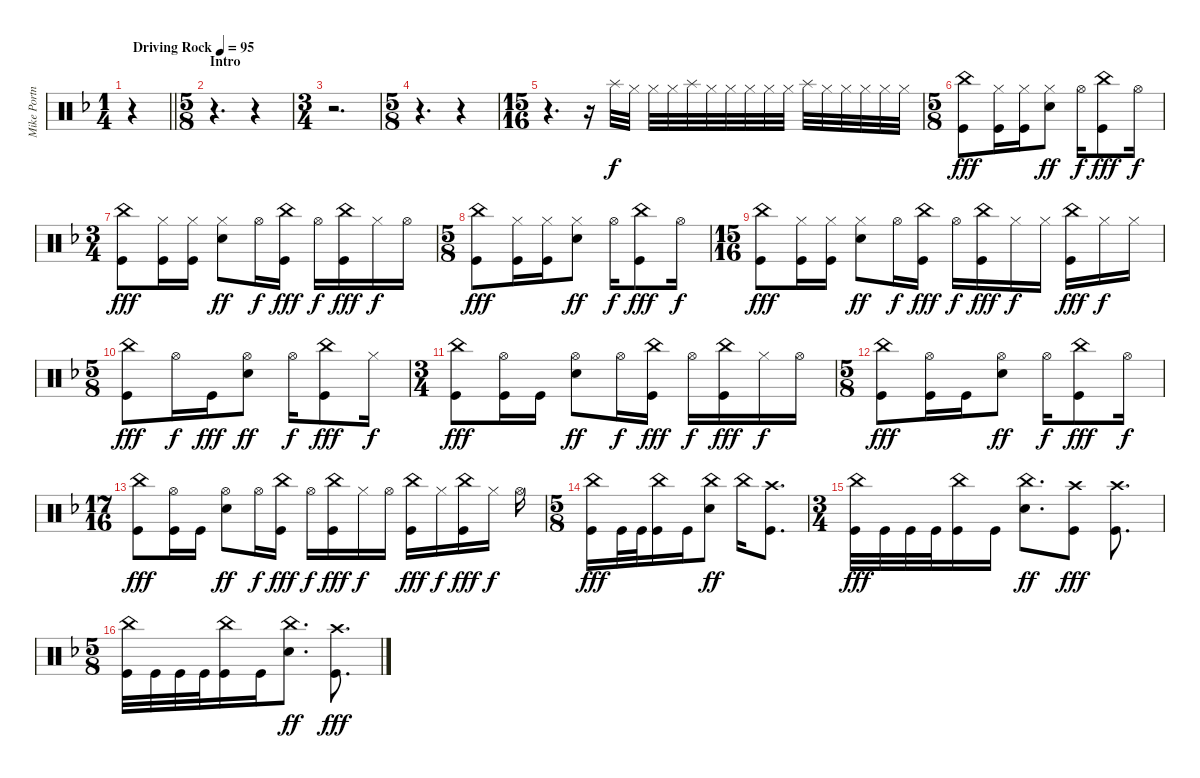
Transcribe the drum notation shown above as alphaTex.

\track ("Mike Portnoy" "Mike Portn") {instrument percussion}
\staff {score}
\articulation defaults
\ts (1 4)
\tempo (95 "Driving Rock")
\clef neutral
\barLineRight lightlight
\ks f
r.4{dy f} |
\ts (5 8)
\section ("" "Intro")
r.4{d} r.4 |
\ts (3 4)
r.2{d} |
\ts (5 8)
r.4{d} r.4 |
\ts (15 16)
r.4{d} r.16 "Splash (hit)".32 "Hi-Hat (closed)".32 "Hi-Hat (closed)".32 "Hi-Hat (closed)".32 "Splash (hit)".32 "Hi-Hat (closed)".32 "Hi-Hat (closed)".32 "Hi-Hat (closed)".32 "Hi-Hat (closed)".32 "Hi-Hat (closed)".32 "Splash (hit)".32 "Hi-Hat (closed)".32 "Hi-Hat (closed)".32 "Hi-Hat (closed)".32 "Hi-Hat (closed)".32 "Hi-Hat (closed)".32 |
\ts (5 8)
("China (hit)" "Kick (hit)").8{dy fff} ("Hi-Hat (closed)" "Kick (hit)").16 ("Hi-Hat (closed)" "Kick (hit)").16 ("Hi-Hat (closed)" "Electric Snare (hit)").8{dy ff} "Hi-Hat (open)".16{dy f} ("China (hit)" "Kick (hit)").8{dy fff} "Hi-Hat (open)".16{dy f} |
\ts (3 4)
("China (hit)" "Kick (hit)").8{dy fff} ("Hi-Hat (closed)" "Kick (hit)").16 ("Hi-Hat (closed)" "Kick (hit)").16 ("Hi-Hat (closed)" "Electric Snare (hit)").8{dy ff} "Hi-Hat (open)".16{dy f} ("China (hit)" "Kick (hit)").16{dy fff} "Hi-Hat (open)".16{dy f} ("China (hit)" "Kick (hit)").16{dy fff} "Hi-Hat (closed)".16{dy f} "Hi-Hat (open)".16 |
\ts (5 8)
("China (hit)" "Kick (hit)").8{dy fff} ("Hi-Hat (closed)" "Kick (hit)").16 ("Hi-Hat (closed)" "Kick (hit)").16 ("Hi-Hat (closed)" "Electric Snare (hit)").8{dy ff} "Hi-Hat (open)".16{dy f} ("China (hit)" "Kick (hit)").8{dy fff} "Hi-Hat (open)".16{dy f} |
\ts (15 16)
("China (hit)" "Kick (hit)").8{dy fff} ("Hi-Hat (closed)" "Kick (hit)").16 ("Hi-Hat (closed)" "Kick (hit)").16 ("Hi-Hat (closed)" "Electric Snare (hit)").8{dy ff} "Hi-Hat (open)".16{dy f} ("China (hit)" "Kick (hit)").16{dy fff} "Hi-Hat (open)".16{dy f} ("China (hit)" "Kick (hit)").16{dy fff} "Hi-Hat (closed)".16{dy f} "Hi-Hat (closed)".16 ("China (hit)" "Kick (hit)").16{dy fff} "Hi-Hat (closed)".16{dy f} "Hi-Hat (closed)".16 |
\ts (5 8)
("China (hit)" "Kick (hit)").8{dy fff} "Hi-Hat (open)".16{dy f} "Kick (hit)".16{dy fff} ("Hi-Hat (open)" "Electric Snare (hit)").8{dy ff} "Hi-Hat (open)".16{dy f} ("China (hit)" "Kick (hit)").8{dy fff} "Hi-Hat (closed)".16{dy f} |
\ts (3 4)
("China (hit)" "Kick (hit)").8{dy fff} ("Hi-Hat (open)" "Kick (hit)").16 "Kick (hit)".16 ("Hi-Hat (open)" "Electric Snare (hit)").8{dy ff} "Hi-Hat (open)".16{dy f} ("China (hit)" "Kick (hit)").16{dy fff} "Hi-Hat (open)".16{dy f} ("China (hit)" "Kick (hit)").16{dy fff} "Hi-Hat (closed)".16{dy f} "Hi-Hat (open)".16 |
\ts (5 8)
("China (hit)" "Kick (hit)").8{dy fff} ("Hi-Hat (open)" "Kick (hit)").16 "Kick (hit)".16 ("Hi-Hat (open)" "Electric Snare (hit)").8{dy ff} "Hi-Hat (open)".16{dy f} ("China (hit)" "Kick (hit)").8{dy fff} "Hi-Hat (open)".16{dy f} |
\ts (17 16)
("China (hit)" "Kick (hit)").8{dy fff} ("Hi-Hat (open)" "Kick (hit)").16 "Kick (hit)".16 ("Hi-Hat (open)" "Electric Snare (hit)").8{dy ff} "Hi-Hat (open)".16{dy f} ("China (hit)" "Kick (hit)").16{dy fff} "Hi-Hat (open)".16{dy f} ("China (hit)" "Kick (hit)").16{dy fff} "Hi-Hat (closed)".16{dy f} "Hi-Hat (open)".16 ("China (hit)" "Kick (hit)").16{dy fff} "Hi-Hat (closed)".16{dy f} ("China (hit)" "Kick (hit)").16{dy fff} "Hi-Hat (closed)".16{dy f} "Hi-Hat (open)".16 |
\ts (5 8)
("China (hit)" "Kick (hit)").16{dy fff} "Kick (hit)".32 "Kick (hit)".32 ("China (hit)" "Kick (hit)").16 "Kick (hit)".16 ("China (hit)" "Electric Snare (hit)").8{dy ff} "China (hit)".16 ("Crash high (hit)" "Kick (hit)").8{d} |
\ts (3 4)
("China (hit)" "Kick (hit)").32{dy fff} "Kick (hit)".32 "Kick (hit)".32 "Kick (hit)".32 ("China (hit)" "Kick (hit)").16 "Kick (hit)".16 ("China (hit)" "Electric Snare (hit)").8{d dy ff} ("Crash high (hit)" "Kick (hit)").8{dy fff} ("Crash high (hit)" "Kick (hit)").8{d} |
\ts (5 8)
("China (hit)" "Kick (hit)").32 "Kick (hit)".32 "Kick (hit)".32 "Kick (hit)".32 ("China (hit)" "Kick (hit)").16 "Kick (hit)".16 ("China (hit)" "Electric Snare (hit)").8{d dy ff} ("Crash high (hit)" "Kick (hit)").8{d dy fff}
